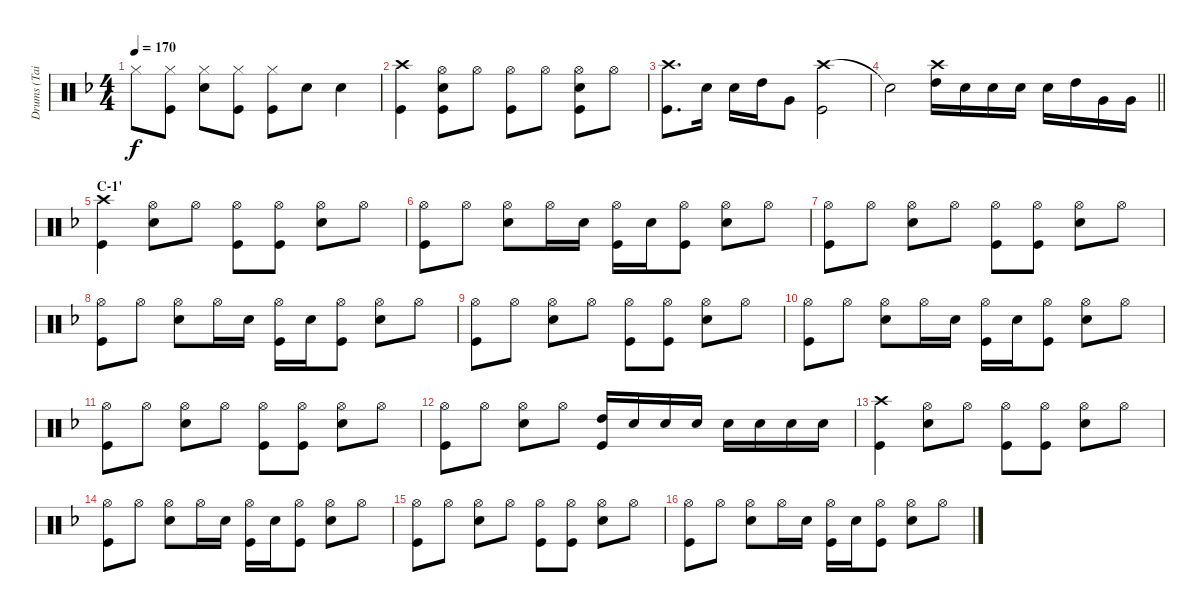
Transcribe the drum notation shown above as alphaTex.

\track ("Drums (Tainaka Ritsu)" "Drums (Tai") {instrument percussion}
\staff {score}
\articulation defaults
\ts (4 4)
\tempo 170
\clef neutral
\ks f "Hi-Hat (closed)".8{dy f}
("Hi-Hat (closed)" "Kick (hit)").8 ("Hi-Hat (closed)" "Snare (hit) 2").8 ("Hi-Hat (closed)" "Kick (hit)").8 ("Hi-Hat (closed)" "Kick (hit)").8 "Snare (hit) 2".8 "Snare (hit) 2".4 |
("Crash high (hit)" "Kick (hit)").4 ("Hi-Hat (open)" "Snare (hit) 2" "Kick (hit)").8 "Hi-Hat (open)".8 ("Hi-Hat (open)" "Kick (hit)").8 "Hi-Hat (open)".8 ("Hi-Hat (open)" "Snare (hit) 2" "Kick (hit)").8 "Hi-Hat (open)".8 |
("Crash high (hit)" "Kick (hit)").8{d} "Snare (hit) 2".16 "Snare (hit) 2".16 "High Tom (hit)".16 "Very Low Tom (hit)".8 ("Crash high (hit)" "Kick (hit)").2 |
\barLineRight lightlight "Snare (hit)"{t}.2
("Crash high (hit)" "High Tom (hit)").16 "Snare (hit) 2".16 "Snare (hit) 2".16 "Snare (hit) 2".16 "Snare (hit) 2".16 "High Tom (hit)".16 "Very Low Tom (hit)".16 "Very Low Tom (hit)".16 |
\section ("" "C-1'")
("Crash high (hit)" "Kick (hit)").4 ("Hi-Hat (open)" "Snare (hit) 2").8 "Hi-Hat (open)".8 ("Hi-Hat (open)" "Kick (hit)").8 ("Hi-Hat (open)" "Kick (hit)").8 ("Hi-Hat (open)" "Snare (hit) 2").8 "Hi-Hat (open)".8 |
("Hi-Hat (open)" "Kick (hit)").8 "Hi-Hat (open)".8 ("Hi-Hat (open)" "Snare (hit) 2").8 "Hi-Hat (open)".16 "Snare (hit) 2".16 ("Hi-Hat (open)" "Kick (hit)").16 "Snare (hit) 2".16 ("Hi-Hat (open)" "Kick (hit)").8 ("Hi-Hat (open)" "Snare (hit) 2").8 "Hi-Hat (open)".8 |
("Hi-Hat (open)" "Kick (hit)").8 "Hi-Hat (open)".8 ("Hi-Hat (open)" "Snare (hit) 2").8 "Hi-Hat (open)".8 ("Hi-Hat (open)" "Kick (hit)").8 ("Hi-Hat (open)" "Kick (hit)").8 ("Hi-Hat (open)" "Snare (hit) 2").8 "Hi-Hat (open)".8 |
("Hi-Hat (open)" "Kick (hit)").8 "Hi-Hat (open)".8 ("Hi-Hat (open)" "Snare (hit) 2").8 "Hi-Hat (open)".16 "Snare (hit) 2".16 ("Hi-Hat (open)" "Kick (hit)").16 "Snare (hit) 2".16 ("Hi-Hat (open)" "Kick (hit)").8 ("Hi-Hat (open)" "Snare (hit) 2").8 "Hi-Hat (open)".8 |
("Hi-Hat (open)" "Kick (hit)").8 "Hi-Hat (open)".8 ("Hi-Hat (open)" "Snare (hit) 2").8 "Hi-Hat (open)".8 ("Hi-Hat (open)" "Kick (hit)").8 ("Hi-Hat (open)" "Kick (hit)").8 ("Hi-Hat (open)" "Snare (hit) 2").8 "Hi-Hat (open)".8 |
("Hi-Hat (open)" "Kick (hit)").8 "Hi-Hat (open)".8 ("Hi-Hat (open)" "Snare (hit) 2").8 "Hi-Hat (open)".16 "Snare (hit) 2".16 ("Hi-Hat (open)" "Kick (hit)").16 "Snare (hit) 2".16 ("Hi-Hat (open)" "Kick (hit)").8 ("Hi-Hat (open)" "Snare (hit) 2").8 "Hi-Hat (open)".8 |
("Hi-Hat (open)" "Kick (hit)").8 "Hi-Hat (open)".8 ("Hi-Hat (open)" "Snare (hit) 2").8 "Hi-Hat (open)".8 ("Hi-Hat (open)" "Kick (hit)").8 ("Hi-Hat (open)" "Kick (hit)").8 ("Hi-Hat (open)" "Snare (hit) 2").8 "Hi-Hat (open)".8 |
("Hi-Hat (open)" "Kick (hit)").8 "Hi-Hat (open)".8 ("Hi-Hat (open)" "Snare (hit) 2").8 "Hi-Hat (open)".8 ("High Tom (hit)" "Kick (hit)").16 "Snare (hit) 2".16 "Snare (hit) 2".16 "Snare (hit) 2".16 "Snare (hit) 2".16 "Snare (hit) 2".16 "Snare (hit) 2".16 "Snare (hit) 2".16 |
("Crash high (hit)" "Kick (hit)").4 ("Hi-Hat (open)" "Snare (hit) 2").8 "Hi-Hat (open)".8 ("Hi-Hat (open)" "Kick (hit)").8 ("Hi-Hat (open)" "Kick (hit)").8 ("Hi-Hat (open)" "Snare (hit) 2").8 "Hi-Hat (open)".8 |
("Hi-Hat (open)" "Kick (hit)").8 "Hi-Hat (open)".8 ("Hi-Hat (open)" "Snare (hit) 2").8 "Hi-Hat (open)".16 "Snare (hit) 2".16 ("Hi-Hat (open)" "Kick (hit)").16 "Snare (hit) 2".16 ("Hi-Hat (open)" "Kick (hit)").8 ("Hi-Hat (open)" "Snare (hit) 2").8 "Hi-Hat (open)".8 |
("Hi-Hat (open)" "Kick (hit)").8 "Hi-Hat (open)".8 ("Hi-Hat (open)" "Snare (hit) 2").8 "Hi-Hat (open)".8 ("Hi-Hat (open)" "Kick (hit)").8 ("Hi-Hat (open)" "Kick (hit)").8 ("Hi-Hat (open)" "Snare (hit) 2").8 "Hi-Hat (open)".8 |
("Hi-Hat (open)" "Kick (hit)").8 "Hi-Hat (open)".8 ("Hi-Hat (open)" "Snare (hit) 2").8 "Hi-Hat (open)".16 "Snare (hit) 2".16 ("Hi-Hat (open)" "Kick (hit)").16 "Snare (hit) 2".16 ("Hi-Hat (open)" "Kick (hit)").8 ("Hi-Hat (open)" "Snare (hit) 2").8 "Hi-Hat (open)".8
